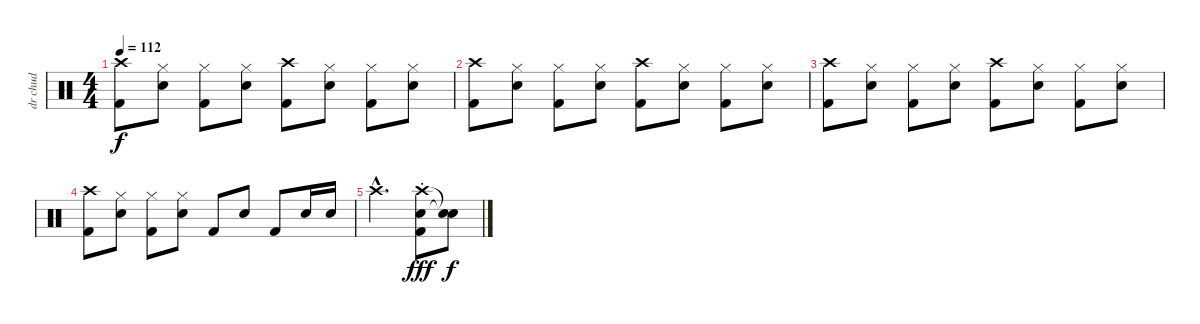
\track ("dr chud" "dr chud") {instrument percussion}
\staff {score}
\articulation defaults
\ts (4 4)
\tempo 112
\clef neutral
\ks c
("Crash high (hit)" "Kick (hit) 2").8{dy f} ("Hi-Hat (closed)" "Electric Snare (hit)").8 ("Hi-Hat (closed)" "Kick (hit) 2").8 ("Hi-Hat (closed)" "Electric Snare (hit)").8 ("Crash high (hit)" "Kick (hit) 2").8 ("Hi-Hat (closed)" "Electric Snare (hit)").8 ("Hi-Hat (closed)" "Kick (hit) 2").8 ("Hi-Hat (closed)" "Electric Snare (hit)").8 |
("Crash high (hit)" "Kick (hit) 2").8 ("Hi-Hat (closed)" "Electric Snare (hit)").8 ("Hi-Hat (closed)" "Kick (hit) 2").8 ("Hi-Hat (closed)" "Electric Snare (hit)").8 ("Crash high (hit)" "Kick (hit) 2").8 ("Hi-Hat (closed)" "Electric Snare (hit)").8 ("Hi-Hat (closed)" "Kick (hit) 2").8 ("Hi-Hat (closed)" "Electric Snare (hit)").8 |
("Crash high (hit)" "Kick (hit) 2").8 ("Hi-Hat (closed)" "Electric Snare (hit)").8 ("Hi-Hat (closed)" "Kick (hit) 2").8 ("Hi-Hat (closed)" "Electric Snare (hit)").8 ("Crash high (hit)" "Kick (hit) 2").8 ("Hi-Hat (closed)" "Electric Snare (hit)").8 ("Hi-Hat (closed)" "Kick (hit) 2").8 ("Hi-Hat (closed)" "Electric Snare (hit)").8 |
("Crash high (hit)" "Kick (hit) 2").8 ("Hi-Hat (closed)" "Electric Snare (hit)").8 ("Hi-Hat (closed)" "Kick (hit) 2").8 ("Hi-Hat (closed)" "Electric Snare (hit)").8 "Kick (hit) 2".8 "Electric Snare (hit)".8 "Kick (hit) 2".8 "Electric Snare (hit)".16 "Electric Snare (hit)".16 |
"Crash high (hit)"{hac}.2{d} ("Crash high (hit)"{st} "Electric Snare (hit)" "Kick (hit) 2").8{dy fff} ("Snare (hit)"{t} "Snare (hit)"{t}).8{dy f}
